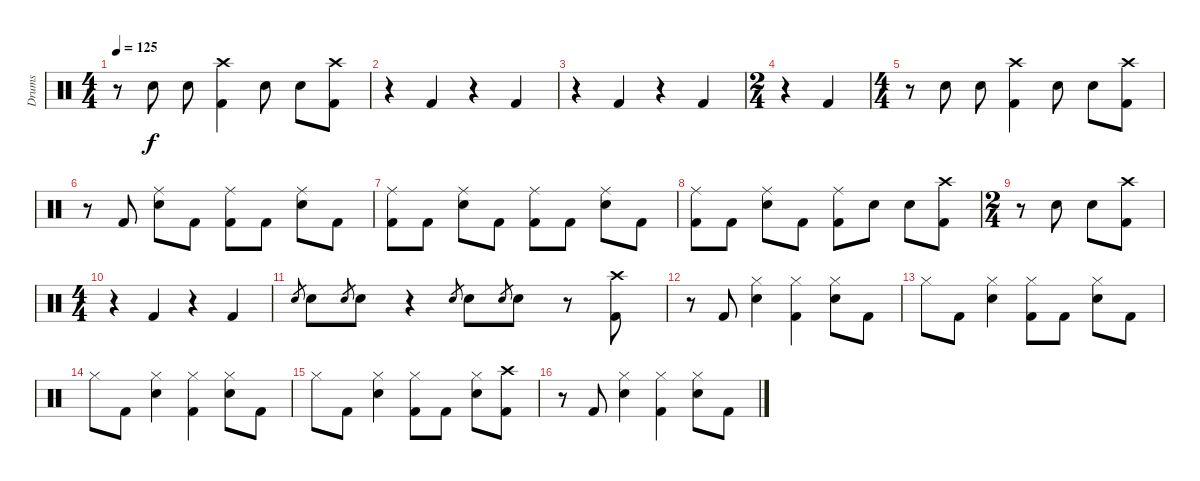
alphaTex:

\track ("Drums" "Drums") {instrument percussion}
\staff {score}
\articulation defaults
\ts (4 4)
\tempo 125
\clef neutral
\ks c
r.8{dy f} "Electric Snare (hit)".8 "Electric Snare (hit)".8 ("Crash high (hit)" "Kick (hit) 2").4 "Electric Snare (hit)".8 "Electric Snare (hit)".8 ("Crash high (hit)" "Kick (hit) 2").8 |
r.4 "Kick (hit) 2".4 r.4 "Kick (hit) 2".4 |
r.4 "Kick (hit) 2".4 r.4 "Kick (hit) 2".4 |
\ts (2 4)
r.4 "Kick (hit) 2".4 |
\ts (4 4)
r.8 "Electric Snare (hit)".8 "Electric Snare (hit)".8 ("Crash high (hit)" "Kick (hit) 2").4 "Electric Snare (hit)".8 "Electric Snare (hit)".8 ("Crash high (hit)" "Kick (hit) 2").8 |
r.8 "Kick (hit) 2".8 ("Ride (middle)" "Electric Snare (hit)").8 "Kick (hit) 2".8 ("Ride (middle)" "Kick (hit) 2").8 "Kick (hit) 2".8 ("Ride (middle)" "Electric Snare (hit)").8 "Kick (hit) 2".8 |
("Ride (middle)" "Kick (hit) 2").8 "Kick (hit) 2".8 ("Ride (middle)" "Electric Snare (hit)").8 "Kick (hit) 2".8 ("Ride (middle)" "Kick (hit) 2").8 "Kick (hit) 2".8 ("Ride (middle)" "Electric Snare (hit)").8 "Kick (hit) 2".8 |
("Ride (middle)" "Kick (hit) 2").8 "Kick (hit) 2".8 ("Ride (middle)" "Electric Snare (hit)").8 "Kick (hit) 2".8 ("Ride (middle)" "Kick (hit) 2").8 "Electric Snare (hit)".8 "Electric Snare (hit)".8 ("Crash high (hit)" "Kick (hit) 2").8 |
\ts (2 4)
r.8 "Electric Snare (hit)".8 "Electric Snare (hit)".8 ("Crash high (hit)" "Kick (hit) 2").8 |
\ts (4 4)
r.4 "Kick (hit) 2".4 r.4 "Kick (hit) 2".4 |
"Electric Snare (hit)".8{gr} "Electric Snare (hit)".8 "Electric Snare (hit)".8{gr} "Electric Snare (hit)".8 r.4 "Electric Snare (hit)".8{gr} "Electric Snare (hit)".8 "Electric Snare (hit)".8{gr} "Electric Snare (hit)".8 r.8 ("Crash high (hit)" "Kick (hit) 2").8 |
r.8 "Kick (hit) 2".8 ("Hi-Hat (closed)" "Electric Snare (hit)").4 ("Hi-Hat (closed)" "Kick (hit) 2").4 ("Hi-Hat (closed)" "Electric Snare (hit)").8 "Kick (hit) 2".8 |
"Hi-Hat (closed)".8 "Kick (hit) 2".8 ("Hi-Hat (closed)" "Electric Snare (hit)").4 ("Hi-Hat (closed)" "Kick (hit) 2").8 "Kick (hit) 2".8 ("Hi-Hat (closed)" "Electric Snare (hit)").8 "Kick (hit) 2".8 |
"Hi-Hat (closed)".8 "Kick (hit) 2".8 ("Hi-Hat (closed)" "Electric Snare (hit)").4 ("Hi-Hat (closed)" "Kick (hit) 2").4 ("Hi-Hat (closed)" "Electric Snare (hit)").8 "Kick (hit) 2".8 |
"Hi-Hat (closed)".8 "Kick (hit) 2".8 ("Hi-Hat (closed)" "Electric Snare (hit)").4 ("Hi-Hat (closed)" "Kick (hit) 2").8 "Kick (hit) 2".8 ("Hi-Hat (closed)" "Electric Snare (hit)").8 ("Crash high (hit)" "Kick (hit) 2").8 |
r.8 "Kick (hit) 2".8 ("Hi-Hat (closed)" "Electric Snare (hit)").4 ("Hi-Hat (closed)" "Kick (hit) 2").4 ("Hi-Hat (closed)" "Electric Snare (hit)").8 "Kick (hit) 2".8
